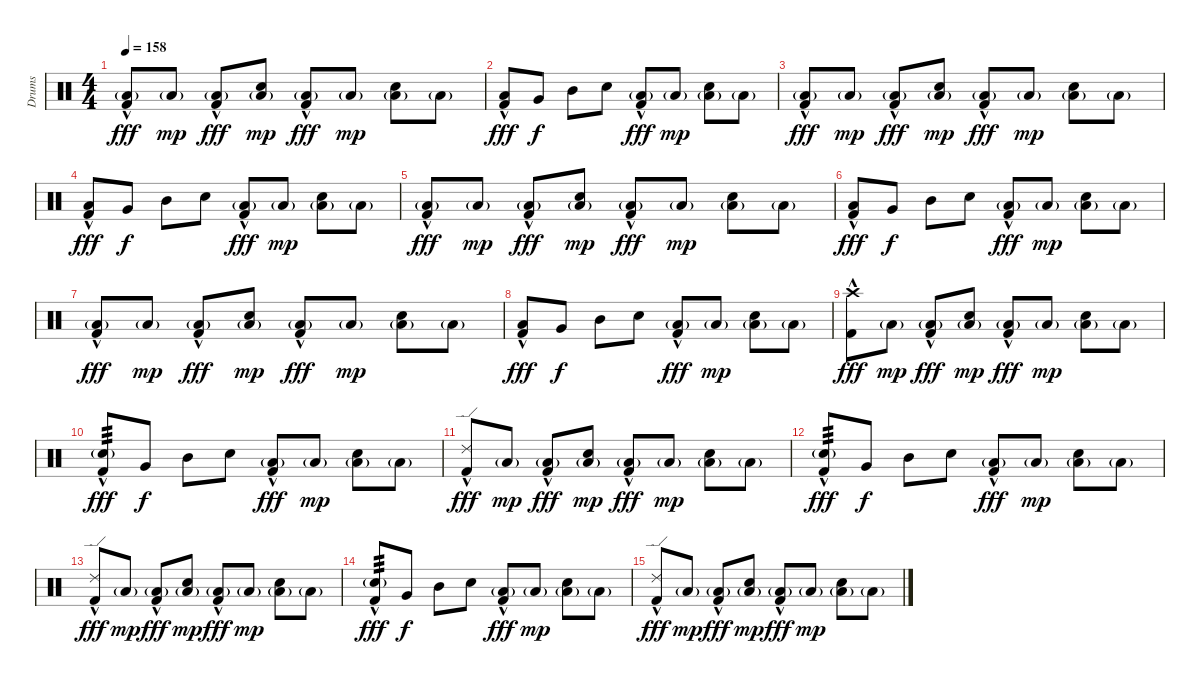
\track ("Drums" "Drums") {instrument percussion}
\staff {score}
\articulation defaults
\ts (4 4)
\tempo 158
\clef neutral
\ks c
("Low Floor Tom (hit)"{g} "Kick (hit) 2"{hac}).8{dy fff} "Low Floor Tom (hit)"{g}.8{dy mp} ("Low Floor Tom (hit)"{g} "Kick (hit) 2"{hac}).8{dy fff} ("Electric Snare (hit)" "Low Floor Tom (hit)"{g}).8{dy mp} ("Low Floor Tom (hit)"{g} "Kick (hit) 2"{hac}).8{dy fff} "Low Floor Tom (hit)"{g}.8{dy mp} ("Electric Snare (hit)" "Low Floor Tom (hit)"{g}).8 "Low Floor Tom (hit)"{g}.8 |
("Low Floor Tom (hit)" "Kick (hit) 2"{hac}).8{dy fff} "Very Low Tom (hit)".8{dy f} "Mid Tom (hit)".8 "Electric Snare (hit)".8 ("Low Floor Tom (hit)"{g} "Kick (hit) 2"{hac}).8{dy fff} "Low Floor Tom (hit)"{g}.8{dy mp} ("Electric Snare (hit)" "Low Floor Tom (hit)"{g}).8 "Low Floor Tom (hit)"{g}.8 |
("Low Floor Tom (hit)"{g} "Kick (hit) 2"{hac}).8{dy fff} "Low Floor Tom (hit)"{g}.8{dy mp} ("Low Floor Tom (hit)"{g} "Kick (hit) 2"{hac}).8{dy fff} ("Electric Snare (hit)" "Low Floor Tom (hit)"{g}).8{dy mp} ("Low Floor Tom (hit)"{g} "Kick (hit) 2"{hac}).8{dy fff} "Low Floor Tom (hit)"{g}.8{dy mp} ("Electric Snare (hit)" "Low Floor Tom (hit)"{g}).8 "Low Floor Tom (hit)"{g}.8 |
("Low Floor Tom (hit)" "Kick (hit) 2"{hac}).8{dy fff} "Very Low Tom (hit)".8{dy f} "Mid Tom (hit)".8 "Electric Snare (hit)".8 ("Low Floor Tom (hit)"{g} "Kick (hit) 2"{hac}).8{dy fff} "Low Floor Tom (hit)"{g}.8{dy mp} ("Electric Snare (hit)" "Low Floor Tom (hit)"{g}).8 "Low Floor Tom (hit)"{g}.8 |
("Low Floor Tom (hit)"{g} "Kick (hit) 2"{hac}).8{dy fff} "Low Floor Tom (hit)"{g}.8{dy mp} ("Low Floor Tom (hit)"{g} "Kick (hit) 2"{hac}).8{dy fff} ("Electric Snare (hit)" "Low Floor Tom (hit)"{g}).8{dy mp} ("Low Floor Tom (hit)"{g} "Kick (hit) 2"{hac}).8{dy fff} "Low Floor Tom (hit)"{g}.8{dy mp} ("Electric Snare (hit)" "Low Floor Tom (hit)"{g}).8 "Low Floor Tom (hit)"{g}.8 |
("Low Floor Tom (hit)" "Kick (hit) 2"{hac}).8{dy fff} "Very Low Tom (hit)".8{dy f} "Mid Tom (hit)".8 "Electric Snare (hit)".8 ("Low Floor Tom (hit)"{g} "Kick (hit) 2"{hac}).8{dy fff} "Low Floor Tom (hit)"{g}.8{dy mp} ("Electric Snare (hit)" "Low Floor Tom (hit)"{g}).8 "Low Floor Tom (hit)"{g}.8 |
("Low Floor Tom (hit)"{g} "Kick (hit) 2"{hac}).8{dy fff} "Low Floor Tom (hit)"{g}.8{dy mp} ("Low Floor Tom (hit)"{g} "Kick (hit) 2"{hac}).8{dy fff} ("Electric Snare (hit)" "Low Floor Tom (hit)"{g}).8{dy mp} ("Low Floor Tom (hit)"{g} "Kick (hit) 2"{hac}).8{dy fff} "Low Floor Tom (hit)"{g}.8{dy mp} ("Electric Snare (hit)" "Low Floor Tom (hit)"{g}).8 "Low Floor Tom (hit)"{g}.8 |
("Low Floor Tom (hit)" "Kick (hit) 2"{hac}).8{dy fff} "Very Low Tom (hit)".8{dy f} "Mid Tom (hit)".8 "Electric Snare (hit)".8 ("Low Floor Tom (hit)"{g} "Kick (hit) 2"{hac}).8{dy fff} "Low Floor Tom (hit)"{g}.8{dy mp} ("Electric Snare (hit)" "Low Floor Tom (hit)"{g}).8 "Low Floor Tom (hit)"{g}.8 |
("Crash high (hit)" "Kick (hit) 2"{hac}).8{dy fff} "Low Floor Tom (hit)"{g}.8{dy mp} ("Low Floor Tom (hit)"{g} "Kick (hit) 2"{hac}).8{dy fff} ("Electric Snare (hit)" "Low Floor Tom (hit)"{g}).8{dy mp} ("Low Floor Tom (hit)"{g} "Kick (hit) 2"{hac}).8{dy fff} "Low Floor Tom (hit)"{g}.8{dy mp} ("Electric Snare (hit)" "Low Floor Tom (hit)"{g}).8 "Low Floor Tom (hit)"{g}.8 |
("Snare (hit) 2"{g} "Kick (hit) 2"{hac}).8{tp 3 dy fff} "Very Low Tom (hit)".8{dy f} "Mid Tom (hit)".8 "Electric Snare (hit)".8 ("Low Floor Tom (hit)"{g} "Kick (hit) 2"{hac}).8{dy fff} "Low Floor Tom (hit)"{g}.8{dy mp} ("Electric Snare (hit)" "Low Floor Tom (hit)"{g}).8 "Low Floor Tom (hit)"{g}.8 |
("Ride (edge) 2" "Kick (hit) 2"{hac}).8{dy fff} "Low Floor Tom (hit)"{g}.8{dy mp} ("Low Floor Tom (hit)"{g} "Kick (hit) 2"{hac}).8{dy fff} ("Electric Snare (hit)" "Low Floor Tom (hit)"{g}).8{dy mp} ("Low Floor Tom (hit)"{g} "Kick (hit) 2"{hac}).8{dy fff} "Low Floor Tom (hit)"{g}.8{dy mp} ("Electric Snare (hit)" "Low Floor Tom (hit)"{g}).8 "Low Floor Tom (hit)"{g}.8 |
("Snare (hit) 2"{g} "Kick (hit) 2"{hac}).8{tp 3 dy fff} "Very Low Tom (hit)".8{dy f} "Mid Tom (hit)".8 "Electric Snare (hit)".8 ("Low Floor Tom (hit)"{g} "Kick (hit) 2"{hac}).8{dy fff} "Low Floor Tom (hit)"{g}.8{dy mp} ("Electric Snare (hit)" "Low Floor Tom (hit)"{g}).8 "Low Floor Tom (hit)"{g}.8 |
("Ride (edge) 2" "Kick (hit) 2"{hac}).8{dy fff} "Low Floor Tom (hit)"{g}.8{dy mp} ("Low Floor Tom (hit)"{g} "Kick (hit) 2"{hac}).8{dy fff} ("Electric Snare (hit)" "Low Floor Tom (hit)"{g}).8{dy mp} ("Low Floor Tom (hit)"{g} "Kick (hit) 2"{hac}).8{dy fff} "Low Floor Tom (hit)"{g}.8{dy mp} ("Electric Snare (hit)" "Low Floor Tom (hit)"{g}).8 "Low Floor Tom (hit)"{g}.8 |
("Snare (hit) 2"{g} "Kick (hit) 2"{hac}).8{tp 3 dy fff} "Very Low Tom (hit)".8{dy f} "Mid Tom (hit)".8 "Electric Snare (hit)".8 ("Low Floor Tom (hit)"{g} "Kick (hit) 2"{hac}).8{dy fff} "Low Floor Tom (hit)"{g}.8{dy mp} ("Electric Snare (hit)" "Low Floor Tom (hit)"{g}).8 "Low Floor Tom (hit)"{g}.8 |
("Ride (edge) 2" "Kick (hit) 2"{hac}).8{dy fff} "Low Floor Tom (hit)"{g}.8{dy mp} ("Low Floor Tom (hit)"{g} "Kick (hit) 2"{hac}).8{dy fff} ("Electric Snare (hit)" "Low Floor Tom (hit)"{g}).8{dy mp} ("Low Floor Tom (hit)"{g} "Kick (hit) 2"{hac}).8{dy fff} "Low Floor Tom (hit)"{g}.8{dy mp} ("Electric Snare (hit)" "Low Floor Tom (hit)"{g}).8 "Low Floor Tom (hit)"{g}.8
